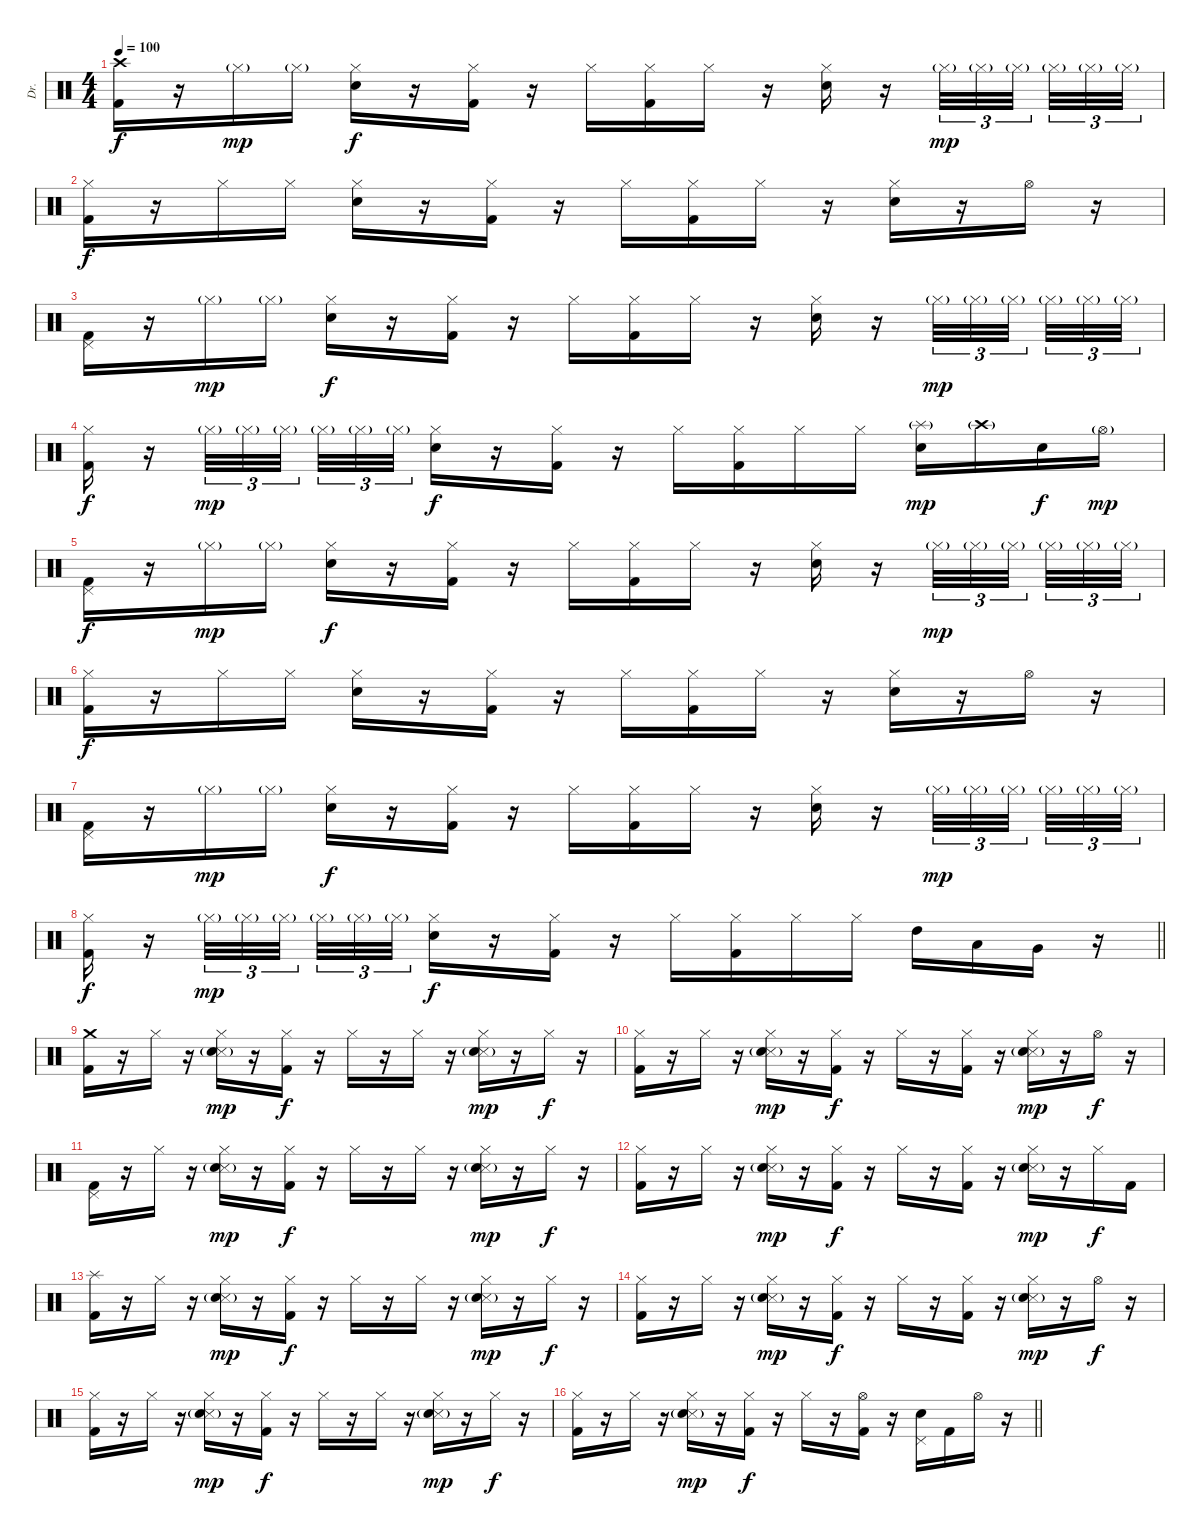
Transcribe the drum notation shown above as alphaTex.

\track ("Dr." "Dr.") {instrument percussion}
\staff {score}
\articulation defaults
\ts (4 4)
\tempo 100
\clef neutral
\ks c
("Crash high (hit)" "Kick (hit) 2").16{dy f} r.16 "Hi-Hat (closed)"{g}.16{dy mp} "Hi-Hat (closed)"{g}.16 ("Hi-Hat (closed)" "Electric Snare (hit)").16{dy f} r.16 ("Hi-Hat (closed)" "Kick (hit) 2").16 r.16 "Hi-Hat (closed)".16 ("Hi-Hat (closed)" "Kick (hit) 2").16 "Hi-Hat (closed)".16 r.16 ("Hi-Hat (closed)" "Electric Snare (hit)").16 r.16 "Hi-Hat (closed)"{g}.32{tu (3 2) dy mp} "Hi-Hat (closed)"{g}.32{tu (3 2)} "Hi-Hat (closed)"{g}.32{tu (3 2) beam splitsecondary} "Hi-Hat (closed)"{g}.32{tu (3 2)} "Hi-Hat (closed)"{g}.32{tu (3 2)} "Hi-Hat (closed)"{g}.32{tu (3 2)} |
("Hi-Hat (closed)" "Kick (hit) 2").16{dy f} r.16 "Hi-Hat (closed)".16 "Hi-Hat (closed)".16 ("Hi-Hat (closed)" "Electric Snare (hit)").16 r.16 ("Hi-Hat (closed)" "Kick (hit) 2").16 r.16 "Hi-Hat (closed)".16 ("Hi-Hat (closed)" "Kick (hit) 2").16 "Hi-Hat (closed)".16 r.16 ("Hi-Hat (closed)" "Electric Snare (hit)").16 r.16 "Hi-Hat (open)".16 r.16 |
("Pedal Hi-Hat (hit)" "Kick (hit) 2").16 r.16 "Hi-Hat (closed)"{g}.16{dy mp} "Hi-Hat (closed)"{g}.16 ("Hi-Hat (closed)" "Electric Snare (hit)").16{dy f} r.16 ("Hi-Hat (closed)" "Kick (hit) 2").16 r.16 "Hi-Hat (closed)".16 ("Hi-Hat (closed)" "Kick (hit) 2").16 "Hi-Hat (closed)".16 r.16 ("Hi-Hat (closed)" "Electric Snare (hit)").16 r.16 "Hi-Hat (closed)"{g}.32{tu (3 2) dy mp} "Hi-Hat (closed)"{g}.32{tu (3 2)} "Hi-Hat (closed)"{g}.32{tu (3 2) beam splitsecondary} "Hi-Hat (closed)"{g}.32{tu (3 2)} "Hi-Hat (closed)"{g}.32{tu (3 2)} "Hi-Hat (closed)"{g}.32{tu (3 2)} |
("Hi-Hat (closed)" "Kick (hit) 2").16{dy f} r.16 "Hi-Hat (closed)"{g}.32{tu (3 2) dy mp} "Hi-Hat (closed)"{g}.32{tu (3 2)} "Hi-Hat (closed)"{g}.32{tu (3 2) beam splitsecondary} "Hi-Hat (closed)"{g}.32{tu (3 2)} "Hi-Hat (closed)"{g}.32{tu (3 2)} "Hi-Hat (closed)"{g}.32{tu (3 2)} ("Hi-Hat (closed)" "Electric Snare (hit)").16{dy f} r.16 ("Hi-Hat (closed)" "Kick (hit) 2").16 r.16 "Hi-Hat (closed)".16 ("Hi-Hat (closed)" "Kick (hit) 2").16 "Hi-Hat (closed)".16 "Hi-Hat (closed)".16 ("Splash (hit)"{g} "Electric Snare (hit)").16{dy mp} "Crash high (hit)"{g}.16 "Metronome (bell)".16{dy f} "Hi-Hat (open)"{g}.16{dy mp} |
("Pedal Hi-Hat (hit)" "Kick (hit) 2").16{dy f} r.16 "Hi-Hat (closed)"{g}.16{dy mp} "Hi-Hat (closed)"{g}.16 ("Hi-Hat (closed)" "Electric Snare (hit)").16{dy f} r.16 ("Hi-Hat (closed)" "Kick (hit) 2").16 r.16 "Hi-Hat (closed)".16 ("Hi-Hat (closed)" "Kick (hit) 2").16 "Hi-Hat (closed)".16 r.16 ("Hi-Hat (closed)" "Electric Snare (hit)").16 r.16 "Hi-Hat (closed)"{g}.32{tu (3 2) dy mp} "Hi-Hat (closed)"{g}.32{tu (3 2)} "Hi-Hat (closed)"{g}.32{tu (3 2) beam splitsecondary} "Hi-Hat (closed)"{g}.32{tu (3 2)} "Hi-Hat (closed)"{g}.32{tu (3 2)} "Hi-Hat (closed)"{g}.32{tu (3 2)} |
("Hi-Hat (closed)" "Kick (hit) 2").16{dy f} r.16 "Hi-Hat (closed)".16 "Hi-Hat (closed)".16 ("Hi-Hat (closed)" "Electric Snare (hit)").16 r.16 ("Hi-Hat (closed)" "Kick (hit) 2").16 r.16 "Hi-Hat (closed)".16 ("Hi-Hat (closed)" "Kick (hit) 2").16 "Hi-Hat (closed)".16 r.16 ("Hi-Hat (closed)" "Electric Snare (hit)").16 r.16 "Hi-Hat (open)".16 r.16 |
("Pedal Hi-Hat (hit)" "Kick (hit) 2").16 r.16 "Hi-Hat (closed)"{g}.16{dy mp} "Hi-Hat (closed)"{g}.16 ("Hi-Hat (closed)" "Electric Snare (hit)").16{dy f} r.16 ("Hi-Hat (closed)" "Kick (hit) 2").16 r.16 "Hi-Hat (closed)".16 ("Hi-Hat (closed)" "Kick (hit) 2").16 "Hi-Hat (closed)".16 r.16 ("Hi-Hat (closed)" "Electric Snare (hit)").16 r.16 "Hi-Hat (closed)"{g}.32{tu (3 2) dy mp} "Hi-Hat (closed)"{g}.32{tu (3 2)} "Hi-Hat (closed)"{g}.32{tu (3 2) beam splitsecondary} "Hi-Hat (closed)"{g}.32{tu (3 2)} "Hi-Hat (closed)"{g}.32{tu (3 2)} "Hi-Hat (closed)"{g}.32{tu (3 2)} |
\barLineRight lightlight
("Hi-Hat (closed)" "Kick (hit) 2").16{dy f} r.16 "Hi-Hat (closed)"{g}.32{tu (3 2) dy mp} "Hi-Hat (closed)"{g}.32{tu (3 2)} "Hi-Hat (closed)"{g}.32{tu (3 2) beam splitsecondary} "Hi-Hat (closed)"{g}.32{tu (3 2)} "Hi-Hat (closed)"{g}.32{tu (3 2)} "Hi-Hat (closed)"{g}.32{tu (3 2)} ("Hi-Hat (closed)" "Electric Snare (hit)").16{dy f} r.16 ("Hi-Hat (closed)" "Kick (hit) 2").16 r.16 "Hi-Hat (closed)".16 ("Hi-Hat (closed)" "Kick (hit) 2").16 "Hi-Hat (closed)".16 "Hi-Hat (closed)".16 "High Tom (hit)".16 "Low Tom (hit)".16 "Very Low Tom (hit)".16 r.16 |
("Crash medium (hit)" "Kick (hit) 2").16 r.16 "Hi-Hat (closed)".16 r.16 ("Hi-Hat (closed)" "Snare (side stick) 3" "Electric Snare (hit)"{g}).16{dy mp} r.16 ("Hi-Hat (closed)" "Kick (hit) 2").16{dy f} r.16 "Hi-Hat (closed)".16 r.16 "Hi-Hat (closed)".16 r.16 ("Hi-Hat (closed)" "Snare (side stick) 3" "Electric Snare (hit)"{g}).16{dy mp} r.16 "Hi-Hat (closed)".16{dy f} r.16 |
("Hi-Hat (closed)" "Kick (hit) 2").16 r.16 "Hi-Hat (closed)".16 r.16 ("Hi-Hat (closed)" "Snare (side stick) 3" "Electric Snare (hit)"{g}).16{dy mp} r.16 ("Hi-Hat (closed)" "Kick (hit) 2").16{dy f} r.16 "Hi-Hat (closed)".16 r.16 ("Hi-Hat (closed)" "Kick (hit) 2").16 r.16 ("Hi-Hat (closed)" "Snare (side stick) 3" "Electric Snare (hit)"{g}).16{dy mp} r.16 "Hi-Hat (open)".16{dy f} r.16 |
("Pedal Hi-Hat (hit)" "Kick (hit) 2").16 r.16 "Hi-Hat (closed)".16 r.16 ("Hi-Hat (closed)" "Snare (side stick) 3" "Electric Snare (hit)"{g}).16{dy mp} r.16 ("Hi-Hat (closed)" "Kick (hit) 2").16{dy f} r.16 "Hi-Hat (closed)".16 r.16 "Hi-Hat (closed)".16 r.16 ("Hi-Hat (closed)" "Snare (side stick) 3" "Electric Snare (hit)"{g}).16{dy mp} r.16 "Hi-Hat (closed)".16{dy f} r.16 |
("Hi-Hat (closed)" "Kick (hit) 2").16 r.16 "Hi-Hat (closed)".16 r.16 ("Hi-Hat (closed)" "Snare (side stick) 3" "Electric Snare (hit)"{g}).16{dy mp} r.16 ("Hi-Hat (closed)" "Kick (hit) 2").16{dy f} r.16 "Hi-Hat (closed)".16 r.16 ("Hi-Hat (closed)" "Kick (hit) 2").16 r.16 ("Hi-Hat (closed)" "Snare (side stick) 3" "Electric Snare (hit)"{g}).16{dy mp} r.16 "Hi-Hat (closed)".16{dy f} "Kick (hit) 2".16 |
("Splash (hit)" "Kick (hit) 2").16 r.16 "Hi-Hat (closed)".16 r.16 ("Hi-Hat (closed)" "Snare (side stick) 3" "Electric Snare (hit)"{g}).16{dy mp} r.16 ("Hi-Hat (closed)" "Kick (hit) 2").16{dy f} r.16 "Hi-Hat (closed)".16 r.16 "Hi-Hat (closed)".16 r.16 ("Hi-Hat (closed)" "Snare (side stick) 3" "Electric Snare (hit)"{g}).16{dy mp} r.16 "Hi-Hat (closed)".16{dy f} r.16 |
("Hi-Hat (closed)" "Kick (hit) 2").16 r.16 "Hi-Hat (closed)".16 r.16 ("Hi-Hat (closed)" "Snare (side stick) 3" "Electric Snare (hit)"{g}).16{dy mp} r.16 ("Hi-Hat (closed)" "Kick (hit) 2").16{dy f} r.16 "Hi-Hat (closed)".16 r.16 ("Hi-Hat (closed)" "Kick (hit) 2").16 r.16 ("Hi-Hat (closed)" "Snare (side stick) 3" "Electric Snare (hit)"{g}).16{dy mp} r.16 "Hi-Hat (open)".16{dy f} r.16 |
("Hi-Hat (closed)" "Kick (hit) 2").16 r.16 "Hi-Hat (closed)".16 r.16 ("Hi-Hat (closed)" "Snare (side stick) 3" "Electric Snare (hit)"{g}).16{dy mp} r.16 ("Hi-Hat (closed)" "Kick (hit) 2").16{dy f} r.16 "Hi-Hat (closed)".16 r.16 "Hi-Hat (closed)".16 r.16 ("Hi-Hat (closed)" "Snare (side stick) 3" "Electric Snare (hit)"{g}).16{dy mp} r.16 "Hi-Hat (closed)".16{dy f} r.16 |
\barLineRight lightlight
("Hi-Hat (closed)" "Kick (hit) 2").16 r.16 "Hi-Hat (closed)".16 r.16 ("Hi-Hat (closed)" "Snare (side stick) 3" "Electric Snare (hit)"{g}).16{dy mp} r.16 ("Hi-Hat (closed)" "Kick (hit) 2").16{dy f} r.16 "Hi-Hat (closed)".16 r.16 ("Hi-Hat (open)" "Kick (hit) 2").16 r.16 ("Pedal Hi-Hat (hit)" "Electric Snare (hit)").16 "Kick (hit) 2".16 "Hi-Hat (open)".16 r.16
